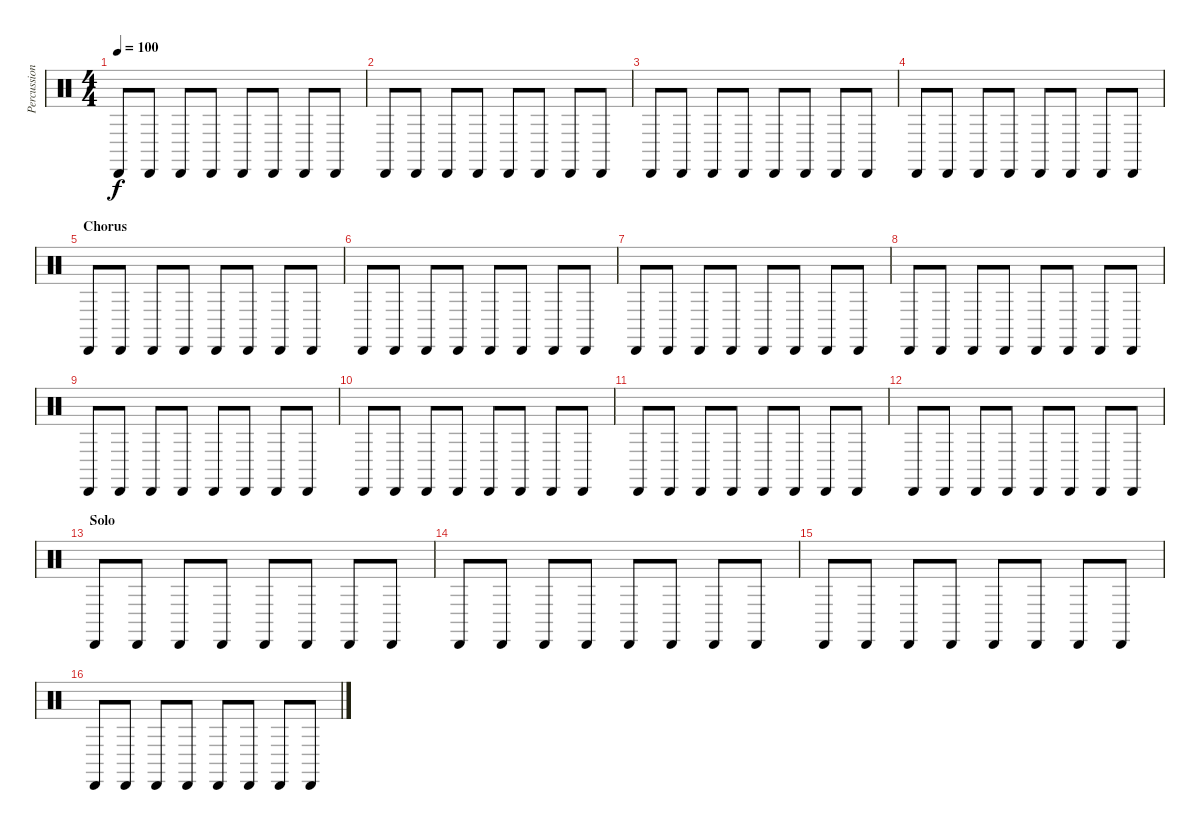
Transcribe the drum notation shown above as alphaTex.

\track ("Percussion" "Percussion") {instrument percussion}
\staff {score}
\articulation defaults
\ts (4 4)
\tempo 100
\clef neutral
\ks c "Cabasa (hit)".8{dy f} "Cabasa (hit)".8 "Cabasa (hit)".8 "Cabasa (hit)".8 "Cabasa (hit)".8 "Cabasa (hit)".8 "Cabasa (hit)".8 "Cabasa (hit)".8
|
"Cabasa (hit)".8 "Cabasa (hit)".8 "Cabasa (hit)".8 "Cabasa (hit)".8 "Cabasa (hit)".8 "Cabasa (hit)".8 "Cabasa (hit)".8 "Cabasa (hit)".8 |
"Cabasa (hit)".8 "Cabasa (hit)".8 "Cabasa (hit)".8 "Cabasa (hit)".8 "Cabasa (hit)".8 "Cabasa (hit)".8 "Cabasa (hit)".8 "Cabasa (hit)".8 |
"Cabasa (hit)".8 "Cabasa (hit)".8 "Cabasa (hit)".8 "Cabasa (hit)".8 "Cabasa (hit)".8 "Cabasa (hit)".8 "Cabasa (hit)".8 "Cabasa (hit)".8 |
\section ("" "Chorus")
"Cabasa (hit)".8 "Cabasa (hit)".8 "Cabasa (hit)".8 "Cabasa (hit)".8 "Cabasa (hit)".8 "Cabasa (hit)".8 "Cabasa (hit)".8 "Cabasa (hit)".8 |
"Cabasa (hit)".8 "Cabasa (hit)".8 "Cabasa (hit)".8 "Cabasa (hit)".8 "Cabasa (hit)".8 "Cabasa (hit)".8 "Cabasa (hit)".8 "Cabasa (hit)".8 |
"Cabasa (hit)".8 "Cabasa (hit)".8 "Cabasa (hit)".8 "Cabasa (hit)".8 "Cabasa (hit)".8 "Cabasa (hit)".8 "Cabasa (hit)".8 "Cabasa (hit)".8 |
"Cabasa (hit)".8 "Cabasa (hit)".8 "Cabasa (hit)".8 "Cabasa (hit)".8 "Cabasa (hit)".8 "Cabasa (hit)".8 "Cabasa (hit)".8 "Cabasa (hit)".8 |
"Cabasa (hit)".8 "Cabasa (hit)".8 "Cabasa (hit)".8 "Cabasa (hit)".8 "Cabasa (hit)".8 "Cabasa (hit)".8 "Cabasa (hit)".8 "Cabasa (hit)".8 |
"Cabasa (hit)".8 "Cabasa (hit)".8 "Cabasa (hit)".8 "Cabasa (hit)".8 "Cabasa (hit)".8 "Cabasa (hit)".8 "Cabasa (hit)".8 "Cabasa (hit)".8 |
"Cabasa (hit)".8 "Cabasa (hit)".8 "Cabasa (hit)".8 "Cabasa (hit)".8 "Cabasa (hit)".8 "Cabasa (hit)".8 "Cabasa (hit)".8 "Cabasa (hit)".8 |
"Cabasa (hit)".8 "Cabasa (hit)".8 "Cabasa (hit)".8 "Cabasa (hit)".8 "Cabasa (hit)".8 "Cabasa (hit)".8 "Cabasa (hit)".8 "Cabasa (hit)".8 |
\section ("" "Solo")
"Cabasa (hit)".8 "Cabasa (hit)".8 "Cabasa (hit)".8 "Cabasa (hit)".8 "Cabasa (hit)".8 "Cabasa (hit)".8 "Cabasa (hit)".8 "Cabasa (hit)".8 |
"Cabasa (hit)".8 "Cabasa (hit)".8 "Cabasa (hit)".8 "Cabasa (hit)".8 "Cabasa (hit)".8 "Cabasa (hit)".8 "Cabasa (hit)".8 "Cabasa (hit)".8 |
"Cabasa (hit)".8 "Cabasa (hit)".8 "Cabasa (hit)".8 "Cabasa (hit)".8 "Cabasa (hit)".8 "Cabasa (hit)".8 "Cabasa (hit)".8 "Cabasa (hit)".8 |
"Cabasa (hit)".8 "Cabasa (hit)".8 "Cabasa (hit)".8 "Cabasa (hit)".8 "Cabasa (hit)".8 "Cabasa (hit)".8 "Cabasa (hit)".8 "Cabasa (hit)".8
